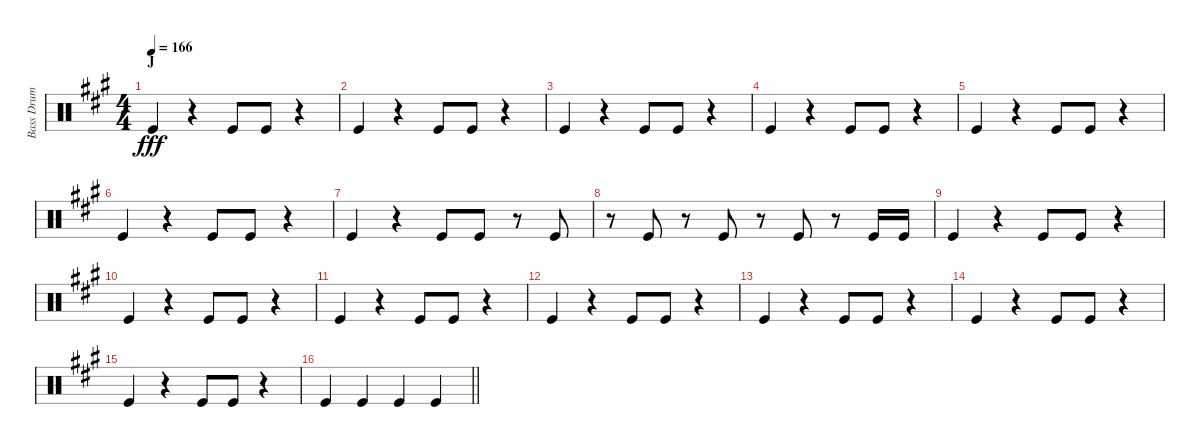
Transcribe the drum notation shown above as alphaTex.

\track ("Bass Drum" "Bass Drum") {instrument percussion}
\staff {score}
\articulation defaults
\ts (4 4)
\section ("" "J")
\tempo 166
\clef neutral
\ks a "Kick (hit)".4{dy fff}
r.4 "Kick (hit)".8 "Kick (hit)".8 r.4 |
"Kick (hit)".4 r.4 "Kick (hit)".8 "Kick (hit)".8 r.4 |
"Kick (hit)".4 r.4 "Kick (hit)".8 "Kick (hit)".8 r.4 |
"Kick (hit)".4 r.4 "Kick (hit)".8 "Kick (hit)".8 r.4 |
"Kick (hit)".4 r.4 "Kick (hit)".8 "Kick (hit)".8 r.4 |
"Kick (hit)".4 r.4 "Kick (hit)".8 "Kick (hit)".8 r.4 |
"Kick (hit)".4 r.4 "Kick (hit)".8 "Kick (hit)".8 r.8 "Kick (hit)".8 |
r.8 "Kick (hit)".8 r.8 "Kick (hit)".8 r.8 "Kick (hit)".8 r.8 "Kick (hit)".16 "Kick (hit)".16 |
"Kick (hit)".4 r.4 "Kick (hit)".8 "Kick (hit)".8 r.4 |
"Kick (hit)".4 r.4 "Kick (hit)".8 "Kick (hit)".8 r.4 |
"Kick (hit)".4 r.4 "Kick (hit)".8 "Kick (hit)".8 r.4 |
"Kick (hit)".4 r.4 "Kick (hit)".8 "Kick (hit)".8 r.4 |
"Kick (hit)".4 r.4 "Kick (hit)".8 "Kick (hit)".8 r.4 |
"Kick (hit)".4 r.4 "Kick (hit)".8 "Kick (hit)".8 r.4 |
"Kick (hit)".4 r.4 "Kick (hit)".8 "Kick (hit)".8 r.4 |
\barLineRight lightlight "Kick (hit)".4 "Kick (hit)".4 "Kick (hit)".4 "Kick (hit)".4
